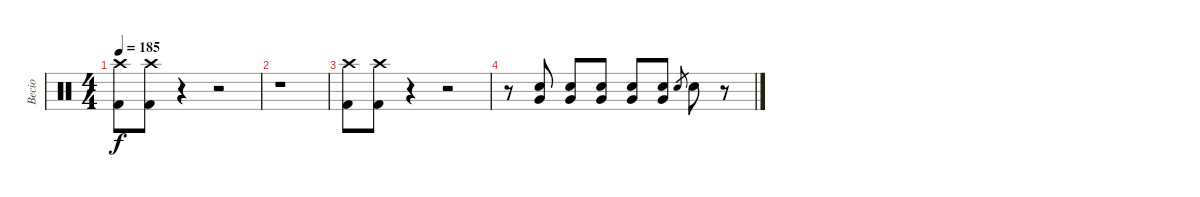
\track ("Becio" "Becio") {instrument percussion}
\staff {score}
\articulation defaults
\ts (4 4)
\tempo 185
\clef neutral
\ks c
("Crash high (hit)" "Kick (hit) 2").8{dy f} ("Crash high (hit)" "Kick (hit) 2").8 r.4 r.2 |
r.1 |
("Crash high (hit)" "Kick (hit) 2").8 ("Crash high (hit)" "Kick (hit) 2").8 r.4 r.2 |
r.8 ("Electric Snare (hit)" "Very Low Tom (hit)").8 ("Electric Snare (hit)" "Very Low Tom (hit)").8 ("Electric Snare (hit)" "Very Low Tom (hit)").8 ("Electric Snare (hit)" "Very Low Tom (hit)").8 ("Electric Snare (hit)" "Very Low Tom (hit)").8 "Electric Snare (hit)".8{gr} "Electric Snare (hit)".8 r.8
